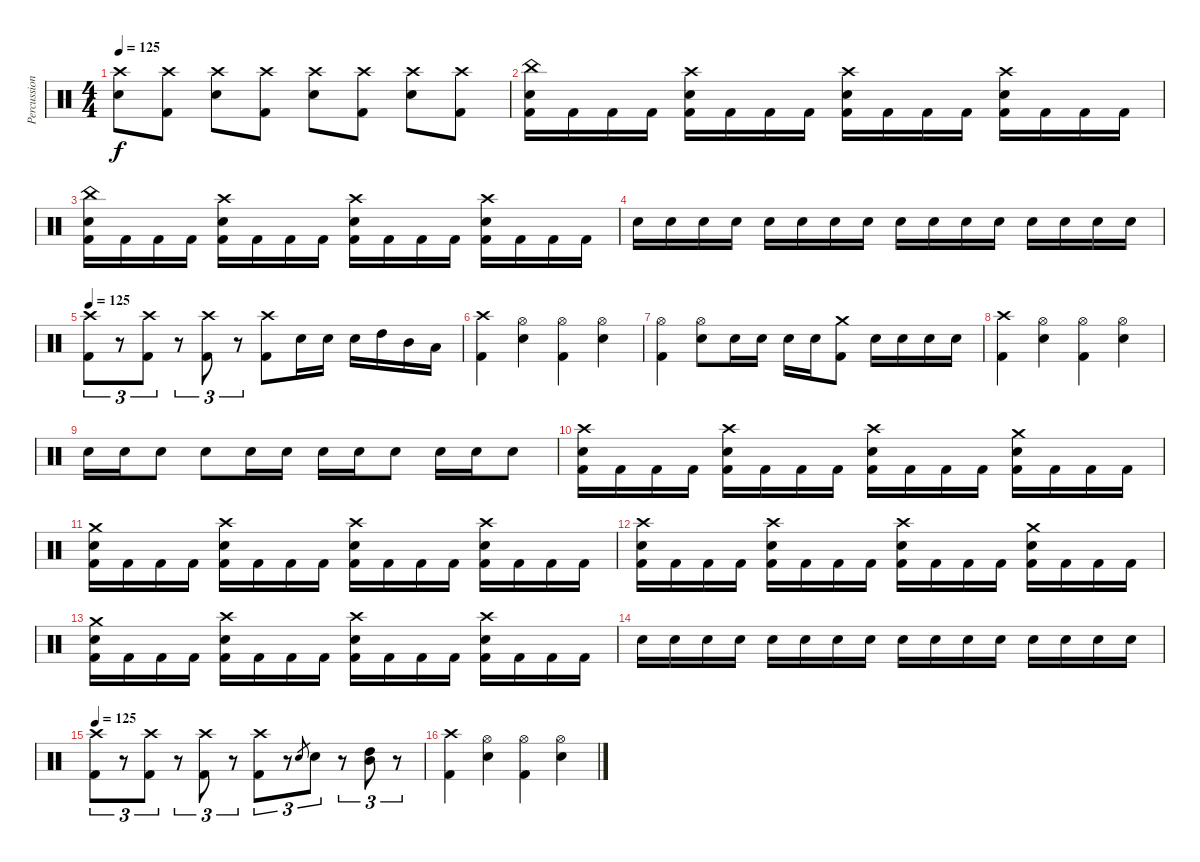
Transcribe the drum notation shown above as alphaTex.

\track ("Percussion" "Percussion") {instrument percussion}
\staff {score}
\articulation defaults
\ts (4 4)
\tempo 125
\clef neutral
\ks c
("Crash high (hit)" "Electric Snare (hit)").8{dy f} ("Crash high (hit)" "Kick (hit) 2").8 ("Crash high (hit)" "Electric Snare (hit)").8 ("Crash high (hit)" "Kick (hit) 2").8 ("Crash high (hit)" "Electric Snare (hit)").8 ("Crash high (hit)" "Kick (hit) 2").8 ("Crash high (hit)" "Electric Snare (hit)").8 ("Crash high (hit)" "Kick (hit) 2").8 |
("China (hit)" "Electric Snare (hit)" "Kick (hit) 2").16 "Kick (hit) 2".16 "Kick (hit) 2".16 "Kick (hit) 2".16 ("Crash high (hit)" "Electric Snare (hit)" "Kick (hit) 2").16 "Kick (hit) 2".16 "Kick (hit) 2".16 "Kick (hit) 2".16 ("Crash high (hit)" "Electric Snare (hit)" "Kick (hit) 2").16 "Kick (hit) 2".16 "Kick (hit) 2".16 "Kick (hit) 2".16 ("Crash high (hit)" "Electric Snare (hit)" "Kick (hit) 2").16 "Kick (hit) 2".16 "Kick (hit) 2".16 "Kick (hit) 2".16 |
("China (hit)" "Electric Snare (hit)" "Kick (hit) 2").16 "Kick (hit) 2".16 "Kick (hit) 2".16 "Kick (hit) 2".16 ("Crash high (hit)" "Electric Snare (hit)" "Kick (hit) 2").16 "Kick (hit) 2".16 "Kick (hit) 2".16 "Kick (hit) 2".16 ("Crash high (hit)" "Electric Snare (hit)" "Kick (hit) 2").16 "Kick (hit) 2".16 "Kick (hit) 2".16 "Kick (hit) 2".16 ("Crash high (hit)" "Electric Snare (hit)" "Kick (hit) 2").16 "Kick (hit) 2".16 "Kick (hit) 2".16 "Kick (hit) 2".16 |
"Electric Snare (hit)".16{volume 9} "Electric Snare (hit)".16{volume 13} "Electric Snare (hit)".16 "Electric Snare (hit)".16 "Electric Snare (hit)".16 "Electric Snare (hit)".16 "Electric Snare (hit)".16 "Electric Snare (hit)".16 "Electric Snare (hit)".16 "Electric Snare (hit)".16 "Electric Snare (hit)".16 "Electric Snare (hit)".16 "Electric Snare (hit)".16 "Electric Snare (hit)".16 "Electric Snare (hit)".16 "Electric Snare (hit)".16 |
\tempo 125
("Crash high (hit)" "Kick (hit) 2").8{tu (3 2) volume 13} r.8{tu (3 2) volume 0} ("Crash high (hit)" "Kick (hit) 2").8{tu (3 2) volume 13} r.8{tu (3 2) volume 0} ("Crash high (hit)" "Kick (hit) 2").8{tu (3 2) volume 13} r.8{tu (3 2) volume 0} ("Crash high (hit)" "Kick (hit) 2").8{volume 13} "Electric Snare (hit)".16 "Electric Snare (hit)".16 "Electric Snare (hit)".16 "High Tom (hit)".16 "Mid Tom (hit)".16 "Low Tom (hit)".16 |
("Crash high (hit)" "Kick (hit) 2").4{volume 13} ("Hi-Hat (open)" "Electric Snare (hit)").4 ("Hi-Hat (open)" "Kick (hit) 2").4 ("Hi-Hat (open)" "Electric Snare (hit)").4 |
("Hi-Hat (open)" "Kick (hit) 2").4 ("Hi-Hat (open)" "Electric Snare (hit)").8 "Electric Snare (hit)".16 "Electric Snare (hit)".16 "Electric Snare (hit)".16 "Electric Snare (hit)".16 ("Crash medium (hit)" "Kick (hit) 2").8 "Electric Snare (hit)".16 "Electric Snare (hit)".16 "Electric Snare (hit)".16 "Electric Snare (hit)".16 |
("Crash high (hit)" "Kick (hit) 2").4{volume 13} ("Hi-Hat (open)" "Electric Snare (hit)").4 ("Hi-Hat (open)" "Kick (hit) 2").4 ("Hi-Hat (open)" "Electric Snare (hit)").4 |
"Electric Snare (hit)".16 "Electric Snare (hit)".16 "Electric Snare (hit)".8 "Electric Snare (hit)".8 "Electric Snare (hit)".16 "Electric Snare (hit)".16 "Electric Snare (hit)".16 "Electric Snare (hit)".16 "Electric Snare (hit)".8 "Electric Snare (hit)".16 "Electric Snare (hit)".16 "Electric Snare (hit)".8 |
("Crash high (hit)" "Electric Snare (hit)" "Kick (hit) 2").16 "Kick (hit) 2".16 "Kick (hit) 2".16 "Kick (hit) 2".16 ("Crash high (hit)" "Electric Snare (hit)" "Kick (hit) 2").16 "Kick (hit) 2".16 "Kick (hit) 2".16 "Kick (hit) 2".16 ("Crash high (hit)" "Electric Snare (hit)" "Kick (hit) 2").16 "Kick (hit) 2".16 "Kick (hit) 2".16 "Kick (hit) 2".16 ("Crash medium (hit)" "Electric Snare (hit)" "Kick (hit) 2").16 "Kick (hit) 2".16 "Kick (hit) 2".16 "Kick (hit) 2".16 |
("Crash medium (hit)" "Electric Snare (hit)" "Kick (hit) 2").16 "Kick (hit) 2".16 "Kick (hit) 2".16 "Kick (hit) 2".16 ("Crash high (hit)" "Electric Snare (hit)" "Kick (hit) 2").16 "Kick (hit) 2".16 "Kick (hit) 2".16 "Kick (hit) 2".16 ("Crash high (hit)" "Electric Snare (hit)" "Kick (hit) 2").16 "Kick (hit) 2".16 "Kick (hit) 2".16 "Kick (hit) 2".16 ("Crash high (hit)" "Electric Snare (hit)" "Kick (hit) 2").16 "Kick (hit) 2".16 "Kick (hit) 2".16 "Kick (hit) 2".16 |
("Crash high (hit)" "Electric Snare (hit)" "Kick (hit) 2").16 "Kick (hit) 2".16 "Kick (hit) 2".16 "Kick (hit) 2".16 ("Crash high (hit)" "Electric Snare (hit)" "Kick (hit) 2").16 "Kick (hit) 2".16 "Kick (hit) 2".16 "Kick (hit) 2".16 ("Crash high (hit)" "Electric Snare (hit)" "Kick (hit) 2").16 "Kick (hit) 2".16 "Kick (hit) 2".16 "Kick (hit) 2".16 ("Crash medium (hit)" "Electric Snare (hit)" "Kick (hit) 2").16 "Kick (hit) 2".16 "Kick (hit) 2".16 "Kick (hit) 2".16 |
("Crash medium (hit)" "Electric Snare (hit)" "Kick (hit) 2").16 "Kick (hit) 2".16 "Kick (hit) 2".16 "Kick (hit) 2".16 ("Crash high (hit)" "Electric Snare (hit)" "Kick (hit) 2").16 "Kick (hit) 2".16 "Kick (hit) 2".16 "Kick (hit) 2".16 ("Crash high (hit)" "Electric Snare (hit)" "Kick (hit) 2").16 "Kick (hit) 2".16 "Kick (hit) 2".16 "Kick (hit) 2".16 ("Crash high (hit)" "Electric Snare (hit)" "Kick (hit) 2").16 "Kick (hit) 2".16 "Kick (hit) 2".16 "Kick (hit) 2".16 |
"Electric Snare (hit)".16{volume 9} "Electric Snare (hit)".16{volume 13} "Electric Snare (hit)".16 "Electric Snare (hit)".16 "Electric Snare (hit)".16 "Electric Snare (hit)".16 "Electric Snare (hit)".16 "Electric Snare (hit)".16 "Electric Snare (hit)".16 "Electric Snare (hit)".16 "Electric Snare (hit)".16 "Electric Snare (hit)".16 "Electric Snare (hit)".16 "Electric Snare (hit)".16 "Electric Snare (hit)".16 "Electric Snare (hit)".16 |
\tempo 125
("Crash high (hit)" "Kick (hit) 2").8{tu (3 2) volume 13} r.8{tu (3 2) volume 0} ("Crash high (hit)" "Kick (hit) 2").8{tu (3 2) volume 13} r.8{tu (3 2) volume 0} ("Crash high (hit)" "Kick (hit) 2").8{tu (3 2) volume 13} r.8{tu (3 2) volume 0} ("Crash high (hit)" "Kick (hit) 2").8{tu (3 2) volume 13} r.8{tu (3 2)} "Electric Snare (hit)".8{gr} "Electric Snare (hit)".8{tu (3 2) volume 13} r.8{tu (3 2)} ("Mid Tom (hit)" "High Tom (hit)").8{tu (3 2) volume 13} r.8{tu (3 2)} |
("Crash high (hit)" "Kick (hit) 2").4 ("Hi-Hat (open)" "Electric Snare (hit)").4 ("Hi-Hat (open)" "Kick (hit) 2").4 ("Hi-Hat (open)" "Electric Snare (hit)").4
